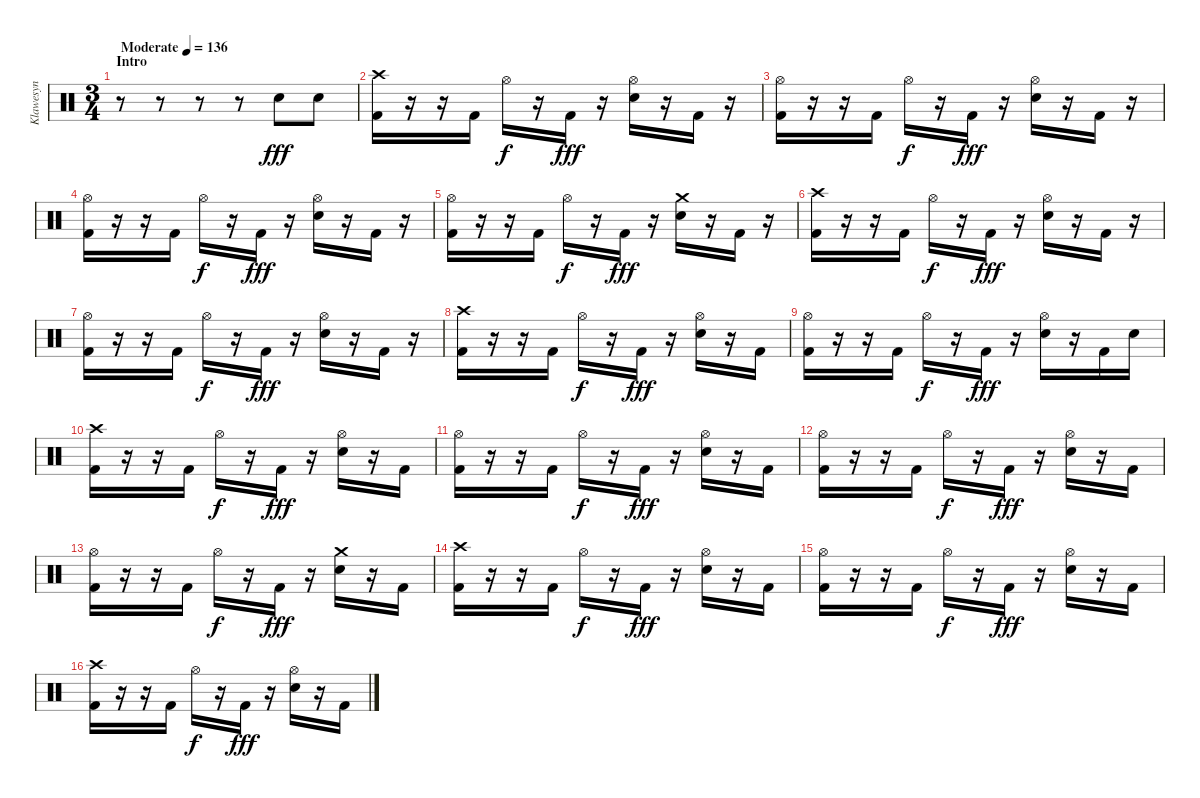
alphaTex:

\track ("Klawesyn" "Klawesyn") {instrument percussion}
\staff {score}
\articulation defaults
\ts (3 4)
\section ("" "Intro")
\tempo (136 "Moderate")
\clef neutral
\ks c
r.8{dy fff} r.8 r.8 r.8 "Snare (hit) 2".8 "Snare (hit) 2".8 |
("Crash high (hit)" "Kick (hit) 2").16 r.16 r.16 "Kick (hit) 2".16 "Hi-Hat (open)".16{dy f} r.16 "Kick (hit) 2".16{dy fff} r.16 ("Hi-Hat (open)" "Snare (hit) 2").16 r.16 "Kick (hit) 2".16 r.16 |
("Hi-Hat (open)" "Kick (hit) 2").16 r.16 r.16 "Kick (hit) 2".16 "Hi-Hat (open)".16{dy f} r.16 "Kick (hit) 2".16{dy fff} r.16 ("Hi-Hat (open)" "Snare (hit) 2").16 r.16 "Kick (hit) 2".16 r.16 |
("Hi-Hat (open)" "Kick (hit) 2").16 r.16 r.16 "Kick (hit) 2".16 "Hi-Hat (open)".16{dy f} r.16 "Kick (hit) 2".16{dy fff} r.16 ("Hi-Hat (open)" "Snare (hit) 2").16 r.16 "Kick (hit) 2".16 r.16 |
("Hi-Hat (open)" "Kick (hit) 2").16 r.16 r.16 "Kick (hit) 2".16 "Hi-Hat (open)".16{dy f} r.16 "Kick (hit) 2".16{dy fff} r.16 ("Crash medium (hit)" "Snare (hit) 2").16 r.16 "Kick (hit) 2".16 r.16 |
("Crash high (hit)" "Kick (hit) 2").16 r.16 r.16 "Kick (hit) 2".16 "Hi-Hat (open)".16{dy f} r.16 "Kick (hit) 2".16{dy fff} r.16 ("Hi-Hat (open)" "Snare (hit) 2").16 r.16 "Kick (hit) 2".16 r.16 |
("Hi-Hat (open)" "Kick (hit) 2").16 r.16 r.16 "Kick (hit) 2".16 "Hi-Hat (open)".16{dy f} r.16 "Kick (hit) 2".16{dy fff} r.16 ("Hi-Hat (open)" "Snare (hit) 2").16 r.16 "Kick (hit) 2".16 r.16 |
("Crash high (hit)" "Kick (hit) 2").16 r.16 r.16 "Kick (hit) 2".16 "Hi-Hat (open)".16{dy f} r.16 "Kick (hit) 2".16{dy fff} r.16 ("Hi-Hat (open)" "Snare (hit) 2").16 r.16 "Kick (hit) 2".16 |
("Hi-Hat (open)" "Kick (hit) 2").16 r.16 r.16 "Kick (hit) 2".16 "Hi-Hat (open)".16{dy f} r.16 "Kick (hit) 2".16{dy fff} r.16 ("Hi-Hat (open)" "Snare (hit) 2").16 r.16 "Kick (hit) 2".16 "Snare (hit) 2".16 |
("Crash high (hit)" "Kick (hit) 2").16 r.16 r.16 "Kick (hit) 2".16 "Hi-Hat (open)".16{dy f} r.16 "Kick (hit) 2".16{dy fff} r.16 ("Hi-Hat (open)" "Snare (hit) 2").16 r.16 "Kick (hit) 2".16 |
("Hi-Hat (open)" "Kick (hit) 2").16 r.16 r.16 "Kick (hit) 2".16 "Hi-Hat (open)".16{dy f} r.16 "Kick (hit) 2".16{dy fff} r.16 ("Hi-Hat (open)" "Snare (hit) 2").16 r.16 "Kick (hit) 2".16 |
("Hi-Hat (open)" "Kick (hit) 2").16 r.16 r.16 "Kick (hit) 2".16 "Hi-Hat (open)".16{dy f} r.16 "Kick (hit) 2".16{dy fff} r.16 ("Hi-Hat (open)" "Snare (hit) 2").16 r.16 "Kick (hit) 2".16 |
("Hi-Hat (open)" "Kick (hit) 2").16 r.16 r.16 "Kick (hit) 2".16 "Hi-Hat (open)".16{dy f} r.16 "Kick (hit) 2".16{dy fff} r.16 ("Crash medium (hit)" "Snare (hit) 2").16 r.16 "Kick (hit) 2".16 |
("Crash high (hit)" "Kick (hit) 2").16 r.16 r.16 "Kick (hit) 2".16 "Hi-Hat (open)".16{dy f} r.16 "Kick (hit) 2".16{dy fff} r.16 ("Hi-Hat (open)" "Snare (hit) 2").16 r.16 "Kick (hit) 2".16 |
("Hi-Hat (open)" "Kick (hit) 2").16 r.16 r.16 "Kick (hit) 2".16 "Hi-Hat (open)".16{dy f} r.16 "Kick (hit) 2".16{dy fff} r.16 ("Hi-Hat (open)" "Snare (hit) 2").16 r.16 "Kick (hit) 2".16 |
("Crash high (hit)" "Kick (hit) 2").16 r.16 r.16 "Kick (hit) 2".16 "Hi-Hat (open)".16{dy f} r.16 "Kick (hit) 2".16{dy fff} r.16 ("Hi-Hat (open)" "Snare (hit) 2").16 r.16 "Kick (hit) 2".16
